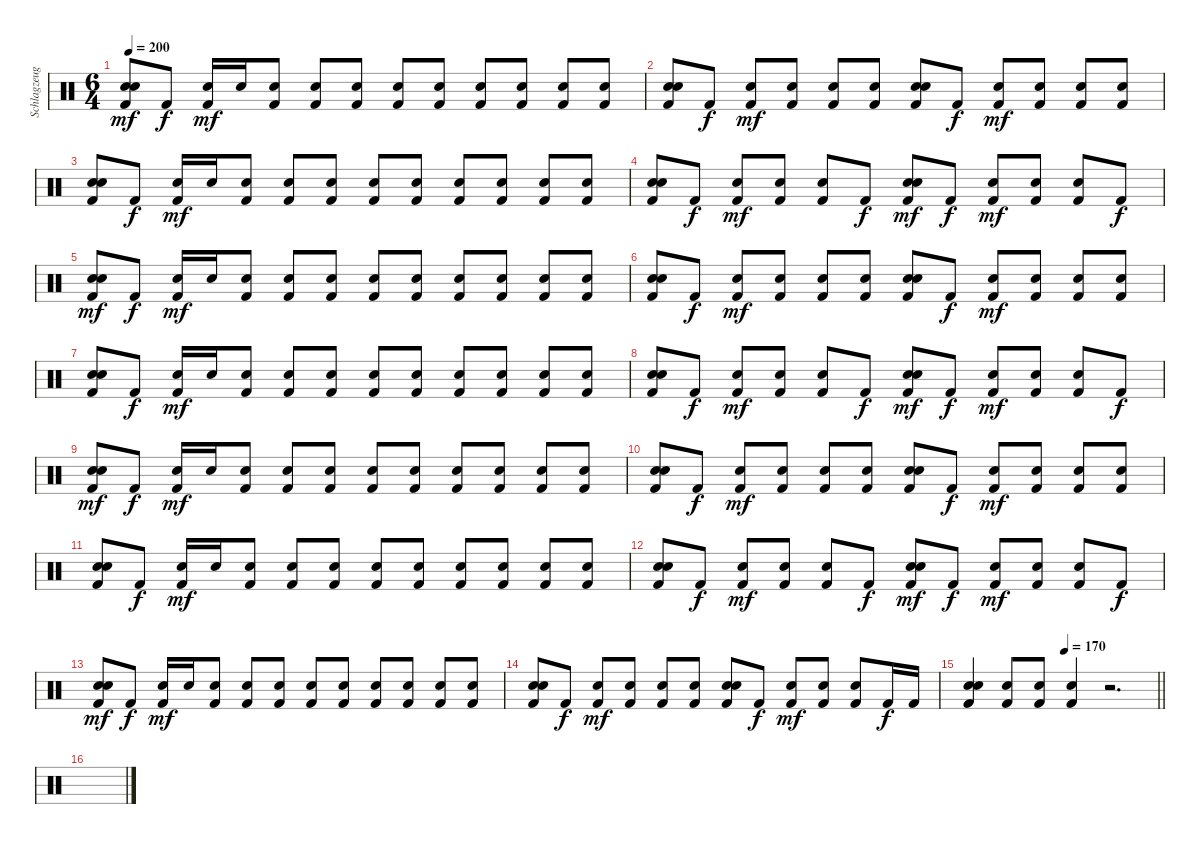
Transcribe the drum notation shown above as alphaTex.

\track ("Schlagzeug" "Schlagzeug") {instrument percussion}
\staff {score}
\articulation defaults
\ts (6 4)
\tempo 200
\clef neutral
\ks c
("Electric Snare (hit)" "Electric Snare (hit)" "Kick (hit) 2").8{bd 480 dy mf} "Kick (hit) 2".8{dy f} ("Electric Snare (hit)" "Kick (hit) 2").16{dy mf} "Electric Snare (hit)".16 ("Electric Snare (hit)" "Kick (hit) 2").8 ("Electric Snare (hit)" "Kick (hit) 2").8 ("Electric Snare (hit)" "Kick (hit) 2").8 ("Electric Snare (hit)" "Kick (hit) 2").8 ("Electric Snare (hit)" "Kick (hit) 2").8 ("Electric Snare (hit)" "Kick (hit) 2").8 ("Electric Snare (hit)" "Kick (hit) 2").8 ("Electric Snare (hit)" "Kick (hit) 2").8 ("Electric Snare (hit)" "Kick (hit) 2").8 |
("Electric Snare (hit)" "Electric Snare (hit)" "Kick (hit) 2").8{bd 480} "Kick (hit) 2".8{dy f} ("Electric Snare (hit)" "Kick (hit) 2").8{dy mf} ("Electric Snare (hit)" "Kick (hit) 2").8 ("Electric Snare (hit)" "Kick (hit) 2").8 ("Electric Snare (hit)" "Kick (hit) 2").8 ("Electric Snare (hit)" "Electric Snare (hit)" "Kick (hit) 2").8{bd 480} "Kick (hit) 2".8{dy f} ("Electric Snare (hit)" "Kick (hit) 2").8{dy mf} ("Electric Snare (hit)" "Kick (hit) 2").8 ("Electric Snare (hit)" "Kick (hit) 2").8 ("Electric Snare (hit)" "Kick (hit) 2").8 |
("Electric Snare (hit)" "Electric Snare (hit)" "Kick (hit) 2").8{bd 480} "Kick (hit) 2".8{dy f} ("Electric Snare (hit)" "Kick (hit) 2").16{dy mf} "Electric Snare (hit)".16 ("Electric Snare (hit)" "Kick (hit) 2").8 ("Electric Snare (hit)" "Kick (hit) 2").8 ("Electric Snare (hit)" "Kick (hit) 2").8 ("Electric Snare (hit)" "Kick (hit) 2").8 ("Electric Snare (hit)" "Kick (hit) 2").8 ("Electric Snare (hit)" "Kick (hit) 2").8 ("Electric Snare (hit)" "Kick (hit) 2").8 ("Electric Snare (hit)" "Kick (hit) 2").8 ("Electric Snare (hit)" "Kick (hit) 2").8 |
("Electric Snare (hit)" "Electric Snare (hit)" "Kick (hit) 2").8{bd 480} "Kick (hit) 2".8{dy f} ("Electric Snare (hit)" "Kick (hit) 2").8{dy mf} ("Electric Snare (hit)" "Kick (hit) 2").8 ("Electric Snare (hit)" "Kick (hit) 2").8 "Kick (hit) 2".8{dy f} ("Electric Snare (hit)" "Electric Snare (hit)" "Kick (hit) 2").8{bd 480 dy mf} "Kick (hit) 2".8{dy f} ("Electric Snare (hit)" "Kick (hit) 2").8{dy mf} ("Electric Snare (hit)" "Kick (hit) 2").8 ("Electric Snare (hit)" "Kick (hit) 2").8 "Kick (hit) 2".8{dy f} |
("Electric Snare (hit)" "Electric Snare (hit)" "Kick (hit) 2").8{bd 480 dy mf} "Kick (hit) 2".8{dy f} ("Electric Snare (hit)" "Kick (hit) 2").16{dy mf} "Electric Snare (hit)".16 ("Electric Snare (hit)" "Kick (hit) 2").8 ("Electric Snare (hit)" "Kick (hit) 2").8 ("Electric Snare (hit)" "Kick (hit) 2").8 ("Electric Snare (hit)" "Kick (hit) 2").8 ("Electric Snare (hit)" "Kick (hit) 2").8 ("Electric Snare (hit)" "Kick (hit) 2").8 ("Electric Snare (hit)" "Kick (hit) 2").8 ("Electric Snare (hit)" "Kick (hit) 2").8 ("Electric Snare (hit)" "Kick (hit) 2").8 |
("Electric Snare (hit)" "Electric Snare (hit)" "Kick (hit) 2").8{bd 480} "Kick (hit) 2".8{dy f} ("Electric Snare (hit)" "Kick (hit) 2").8{dy mf} ("Electric Snare (hit)" "Kick (hit) 2").8 ("Electric Snare (hit)" "Kick (hit) 2").8 ("Electric Snare (hit)" "Kick (hit) 2").8 ("Electric Snare (hit)" "Electric Snare (hit)" "Kick (hit) 2").8{bd 480} "Kick (hit) 2".8{dy f} ("Electric Snare (hit)" "Kick (hit) 2").8{dy mf} ("Electric Snare (hit)" "Kick (hit) 2").8 ("Electric Snare (hit)" "Kick (hit) 2").8 ("Electric Snare (hit)" "Kick (hit) 2").8 |
("Electric Snare (hit)" "Electric Snare (hit)" "Kick (hit) 2").8{bd 480} "Kick (hit) 2".8{dy f} ("Electric Snare (hit)" "Kick (hit) 2").16{dy mf} "Electric Snare (hit)".16 ("Electric Snare (hit)" "Kick (hit) 2").8 ("Electric Snare (hit)" "Kick (hit) 2").8 ("Electric Snare (hit)" "Kick (hit) 2").8 ("Electric Snare (hit)" "Kick (hit) 2").8 ("Electric Snare (hit)" "Kick (hit) 2").8 ("Electric Snare (hit)" "Kick (hit) 2").8 ("Electric Snare (hit)" "Kick (hit) 2").8 ("Electric Snare (hit)" "Kick (hit) 2").8 ("Electric Snare (hit)" "Kick (hit) 2").8 |
("Electric Snare (hit)" "Electric Snare (hit)" "Kick (hit) 2").8{bd 480} "Kick (hit) 2".8{dy f} ("Electric Snare (hit)" "Kick (hit) 2").8{dy mf} ("Electric Snare (hit)" "Kick (hit) 2").8 ("Electric Snare (hit)" "Kick (hit) 2").8 "Kick (hit) 2".8{dy f} ("Electric Snare (hit)" "Electric Snare (hit)" "Kick (hit) 2").8{bd 480 dy mf} "Kick (hit) 2".8{dy f} ("Electric Snare (hit)" "Kick (hit) 2").8{dy mf} ("Electric Snare (hit)" "Kick (hit) 2").8 ("Electric Snare (hit)" "Kick (hit) 2").8 "Kick (hit) 2".8{dy f} |
("Electric Snare (hit)" "Electric Snare (hit)" "Kick (hit) 2").8{bd 480 dy mf} "Kick (hit) 2".8{dy f} ("Electric Snare (hit)" "Kick (hit) 2").16{dy mf} "Electric Snare (hit)".16 ("Electric Snare (hit)" "Kick (hit) 2").8 ("Electric Snare (hit)" "Kick (hit) 2").8 ("Electric Snare (hit)" "Kick (hit) 2").8 ("Electric Snare (hit)" "Kick (hit) 2").8 ("Electric Snare (hit)" "Kick (hit) 2").8 ("Electric Snare (hit)" "Kick (hit) 2").8 ("Electric Snare (hit)" "Kick (hit) 2").8 ("Electric Snare (hit)" "Kick (hit) 2").8 ("Electric Snare (hit)" "Kick (hit) 2").8 |
("Electric Snare (hit)" "Electric Snare (hit)" "Kick (hit) 2").8{bd 480} "Kick (hit) 2".8{dy f} ("Electric Snare (hit)" "Kick (hit) 2").8{dy mf} ("Electric Snare (hit)" "Kick (hit) 2").8 ("Electric Snare (hit)" "Kick (hit) 2").8 ("Electric Snare (hit)" "Kick (hit) 2").8 ("Electric Snare (hit)" "Electric Snare (hit)" "Kick (hit) 2").8{bd 480} "Kick (hit) 2".8{dy f} ("Electric Snare (hit)" "Kick (hit) 2").8{dy mf} ("Electric Snare (hit)" "Kick (hit) 2").8 ("Electric Snare (hit)" "Kick (hit) 2").8 ("Electric Snare (hit)" "Kick (hit) 2").8 |
("Electric Snare (hit)" "Electric Snare (hit)" "Kick (hit) 2").8{bd 480} "Kick (hit) 2".8{dy f} ("Electric Snare (hit)" "Kick (hit) 2").16{dy mf} "Electric Snare (hit)".16 ("Electric Snare (hit)" "Kick (hit) 2").8 ("Electric Snare (hit)" "Kick (hit) 2").8 ("Electric Snare (hit)" "Kick (hit) 2").8 ("Electric Snare (hit)" "Kick (hit) 2").8 ("Electric Snare (hit)" "Kick (hit) 2").8 ("Electric Snare (hit)" "Kick (hit) 2").8 ("Electric Snare (hit)" "Kick (hit) 2").8 ("Electric Snare (hit)" "Kick (hit) 2").8 ("Electric Snare (hit)" "Kick (hit) 2").8 |
("Electric Snare (hit)" "Electric Snare (hit)" "Kick (hit) 2").8{bd 480} "Kick (hit) 2".8{dy f} ("Electric Snare (hit)" "Kick (hit) 2").8{dy mf} ("Electric Snare (hit)" "Kick (hit) 2").8 ("Electric Snare (hit)" "Kick (hit) 2").8 "Kick (hit) 2".8{dy f} ("Electric Snare (hit)" "Electric Snare (hit)" "Kick (hit) 2").8{bd 480 dy mf} "Kick (hit) 2".8{dy f} ("Electric Snare (hit)" "Kick (hit) 2").8{dy mf} ("Electric Snare (hit)" "Kick (hit) 2").8 ("Electric Snare (hit)" "Kick (hit) 2").8 "Kick (hit) 2".8{dy f} |
("Electric Snare (hit)" "Electric Snare (hit)" "Kick (hit) 2").8{bd 480 dy mf} "Kick (hit) 2".8{dy f} ("Electric Snare (hit)" "Kick (hit) 2").16{dy mf} "Electric Snare (hit)".16 ("Electric Snare (hit)" "Kick (hit) 2").8 ("Electric Snare (hit)" "Kick (hit) 2").8 ("Electric Snare (hit)" "Kick (hit) 2").8 ("Electric Snare (hit)" "Kick (hit) 2").8 ("Electric Snare (hit)" "Kick (hit) 2").8 ("Electric Snare (hit)" "Kick (hit) 2").8 ("Electric Snare (hit)" "Kick (hit) 2").8 ("Electric Snare (hit)" "Kick (hit) 2").8 ("Electric Snare (hit)" "Kick (hit) 2").8 |
("Electric Snare (hit)" "Electric Snare (hit)" "Kick (hit) 2").8{bd 480} "Kick (hit) 2".8{dy f} ("Electric Snare (hit)" "Kick (hit) 2").8{dy mf} ("Electric Snare (hit)" "Kick (hit) 2").8 ("Electric Snare (hit)" "Kick (hit) 2").8 ("Electric Snare (hit)" "Kick (hit) 2").8 ("Electric Snare (hit)" "Electric Snare (hit)" "Kick (hit) 2").8{bd 480} "Kick (hit) 2".8{dy f} ("Electric Snare (hit)" "Kick (hit) 2").8{dy mf} ("Electric Snare (hit)" "Kick (hit) 2").8 ("Electric Snare (hit)" "Kick (hit) 2").8 "Kick (hit) 2".16{dy f} "Kick (hit) 2".16 |
\tempo (170 0.5)
\barLineRight lightlight
("Electric Snare (hit)" "Electric Snare (hit)" "Kick (hit) 2").4{bd 480} ("Electric Snare (hit)" "Kick (hit) 2").8 ("Electric Snare (hit)" "Kick (hit) 2").8 ("Electric Snare (hit)" "Kick (hit) 2").4 r.2{d} |
\section ("" "")
